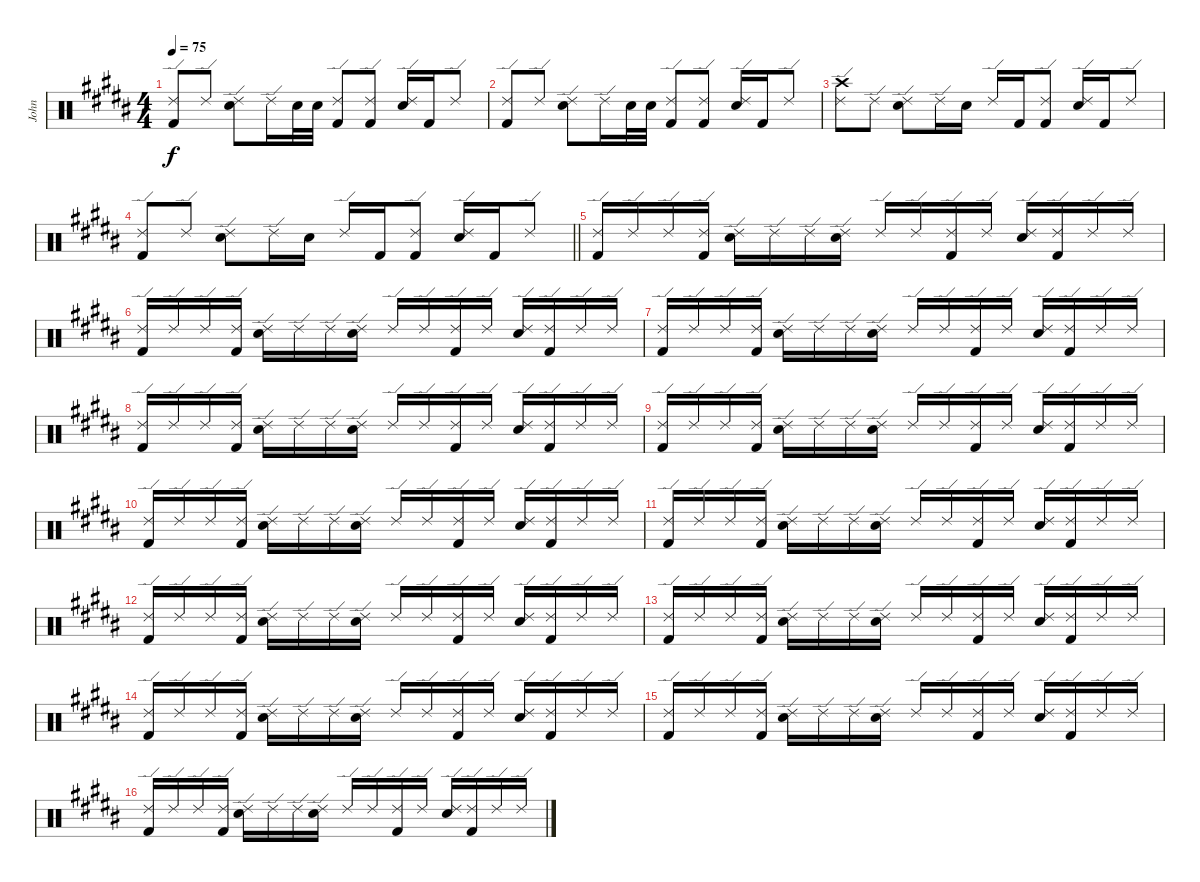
\track ("John" "John") {instrument percussion}
\staff {score}
\articulation defaults
\ts (4 4)
\tempo 75
\clef neutral
\ks g#minor
("Kick (hit) 2" "Ride (edge) 2").8{dy f} "Ride (edge) 2".8 ("Ride (edge) 2" "Snare (hit) 2").8 "Ride (edge) 2".16 "Snare (hit) 2".32 "Snare (hit) 2".32 ("Kick (hit) 2" "Ride (edge) 2").8 ("Kick (hit) 2" "Ride (edge) 2").8 ("Ride (edge) 2" "Snare (hit) 2").16 "Kick (hit) 2".16 "Ride (edge) 2".8 |
("Kick (hit) 2" "Ride (edge) 2").8 "Ride (edge) 2".8 ("Ride (edge) 2" "Snare (hit) 2").8 "Ride (edge) 2".16 "Snare (hit) 2".32 "Snare (hit) 2".32 ("Kick (hit) 2" "Ride (edge) 2").8 ("Kick (hit) 2" "Ride (edge) 2").8 ("Ride (edge) 2" "Snare (hit) 2").16 "Kick (hit) 2".16 "Ride (edge) 2".8 |
("Ride (edge) 2" "Crash high (hit)").8 "Ride (edge) 2".8 ("Ride (edge) 2" "Snare (hit) 2").8 "Ride (edge) 2".16 "Snare (hit) 2".16 "Ride (edge) 2".16 "Kick (hit) 2".16 ("Kick (hit) 2" "Ride (edge) 2").8 ("Ride (edge) 2" "Snare (hit) 2").16 "Kick (hit) 2".16 "Ride (edge) 2".8 |
\barLineRight lightlight
("Kick (hit) 2" "Ride (edge) 2").8 "Ride (edge) 2".8 ("Ride (edge) 2" "Snare (hit) 2").8 "Ride (edge) 2".16 "Snare (hit) 2".16 "Ride (edge) 2".16 "Kick (hit) 2".16 ("Kick (hit) 2" "Ride (edge) 2").8 ("Ride (edge) 2" "Snare (hit) 2").16 "Kick (hit) 2".16 "Ride (edge) 2".8 |
("Kick (hit) 2" "Ride (edge) 2").16 "Ride (edge) 2".16 "Ride (edge) 2".16 ("Kick (hit) 2" "Ride (edge) 2").16 ("Ride (edge) 2" "Snare (hit) 2").16 "Ride (edge) 2".16 "Ride (edge) 2".16 ("Ride (edge) 2" "Snare (hit) 2").16 "Ride (edge) 2".16 "Ride (edge) 2".16 ("Kick (hit) 2" "Ride (edge) 2").16 "Ride (edge) 2".16 ("Ride (edge) 2" "Snare (hit) 2").16 ("Kick (hit) 2" "Ride (edge) 2").16 "Ride (edge) 2".16 "Ride (edge) 2".16 |
("Kick (hit) 2" "Ride (edge) 2").16 "Ride (edge) 2".16 "Ride (edge) 2".16 ("Kick (hit) 2" "Ride (edge) 2").16 ("Ride (edge) 2" "Snare (hit) 2").16 "Ride (edge) 2".16 "Ride (edge) 2".16 ("Ride (edge) 2" "Snare (hit) 2").16 "Ride (edge) 2".16 "Ride (edge) 2".16 ("Kick (hit) 2" "Ride (edge) 2").16 "Ride (edge) 2".16 ("Ride (edge) 2" "Snare (hit) 2").16 ("Kick (hit) 2" "Ride (edge) 2").16 "Ride (edge) 2".16 "Ride (edge) 2".16 |
("Kick (hit) 2" "Ride (edge) 2").16 "Ride (edge) 2".16 "Ride (edge) 2".16 ("Kick (hit) 2" "Ride (edge) 2").16 ("Ride (edge) 2" "Snare (hit) 2").16 "Ride (edge) 2".16 "Ride (edge) 2".16 ("Ride (edge) 2" "Snare (hit) 2").16 "Ride (edge) 2".16 "Ride (edge) 2".16 ("Kick (hit) 2" "Ride (edge) 2").16 "Ride (edge) 2".16 ("Ride (edge) 2" "Snare (hit) 2").16 ("Kick (hit) 2" "Ride (edge) 2").16 "Ride (edge) 2".16 "Ride (edge) 2".16 |
("Kick (hit) 2" "Ride (edge) 2").16 "Ride (edge) 2".16 "Ride (edge) 2".16 ("Kick (hit) 2" "Ride (edge) 2").16 ("Ride (edge) 2" "Snare (hit) 2").16 "Ride (edge) 2".16 "Ride (edge) 2".16 ("Ride (edge) 2" "Snare (hit) 2").16 "Ride (edge) 2".16 "Ride (edge) 2".16 ("Kick (hit) 2" "Ride (edge) 2").16 "Ride (edge) 2".16 ("Ride (edge) 2" "Snare (hit) 2").16 ("Kick (hit) 2" "Ride (edge) 2").16 "Ride (edge) 2".16 "Ride (edge) 2".16 |
("Kick (hit) 2" "Ride (edge) 2").16 "Ride (edge) 2".16 "Ride (edge) 2".16 ("Kick (hit) 2" "Ride (edge) 2").16 ("Ride (edge) 2" "Snare (hit) 2").16 "Ride (edge) 2".16 "Ride (edge) 2".16 ("Ride (edge) 2" "Snare (hit) 2").16 "Ride (edge) 2".16 "Ride (edge) 2".16 ("Kick (hit) 2" "Ride (edge) 2").16 "Ride (edge) 2".16 ("Ride (edge) 2" "Snare (hit) 2").16 ("Kick (hit) 2" "Ride (edge) 2").16 "Ride (edge) 2".16 "Ride (edge) 2".16 |
("Kick (hit) 2" "Ride (edge) 2").16 "Ride (edge) 2".16 "Ride (edge) 2".16 ("Kick (hit) 2" "Ride (edge) 2").16 ("Ride (edge) 2" "Snare (hit) 2").16 "Ride (edge) 2".16 "Ride (edge) 2".16 ("Ride (edge) 2" "Snare (hit) 2").16 "Ride (edge) 2".16 "Ride (edge) 2".16 ("Kick (hit) 2" "Ride (edge) 2").16 "Ride (edge) 2".16 ("Ride (edge) 2" "Snare (hit) 2").16 ("Kick (hit) 2" "Ride (edge) 2").16 "Ride (edge) 2".16 "Ride (edge) 2".16 |
("Kick (hit) 2" "Ride (edge) 2").16 "Ride (edge) 2".16 "Ride (edge) 2".16 ("Kick (hit) 2" "Ride (edge) 2").16 ("Ride (edge) 2" "Snare (hit) 2").16 "Ride (edge) 2".16 "Ride (edge) 2".16 ("Ride (edge) 2" "Snare (hit) 2").16 "Ride (edge) 2".16 "Ride (edge) 2".16 ("Kick (hit) 2" "Ride (edge) 2").16 "Ride (edge) 2".16 ("Ride (edge) 2" "Snare (hit) 2").16 ("Kick (hit) 2" "Ride (edge) 2").16 "Ride (edge) 2".16 "Ride (edge) 2".16 |
("Kick (hit) 2" "Ride (edge) 2").16 "Ride (edge) 2".16 "Ride (edge) 2".16 ("Kick (hit) 2" "Ride (edge) 2").16 ("Ride (edge) 2" "Snare (hit) 2").16 "Ride (edge) 2".16 "Ride (edge) 2".16 ("Ride (edge) 2" "Snare (hit) 2").16 "Ride (edge) 2".16 "Ride (edge) 2".16 ("Kick (hit) 2" "Ride (edge) 2").16 "Ride (edge) 2".16 ("Ride (edge) 2" "Snare (hit) 2").16 ("Kick (hit) 2" "Ride (edge) 2").16 "Ride (edge) 2".16 "Ride (edge) 2".16 |
("Kick (hit) 2" "Ride (edge) 2").16 "Ride (edge) 2".16 "Ride (edge) 2".16 ("Kick (hit) 2" "Ride (edge) 2").16 ("Ride (edge) 2" "Snare (hit) 2").16 "Ride (edge) 2".16 "Ride (edge) 2".16 ("Ride (edge) 2" "Snare (hit) 2").16 "Ride (edge) 2".16 "Ride (edge) 2".16 ("Kick (hit) 2" "Ride (edge) 2").16 "Ride (edge) 2".16 ("Ride (edge) 2" "Snare (hit) 2").16 ("Kick (hit) 2" "Ride (edge) 2").16 "Ride (edge) 2".16 "Ride (edge) 2".16 |
("Kick (hit) 2" "Ride (edge) 2").16 "Ride (edge) 2".16 "Ride (edge) 2".16 ("Kick (hit) 2" "Ride (edge) 2").16 ("Ride (edge) 2" "Snare (hit) 2").16 "Ride (edge) 2".16 "Ride (edge) 2".16 ("Ride (edge) 2" "Snare (hit) 2").16 "Ride (edge) 2".16 "Ride (edge) 2".16 ("Kick (hit) 2" "Ride (edge) 2").16 "Ride (edge) 2".16 ("Ride (edge) 2" "Snare (hit) 2").16 ("Kick (hit) 2" "Ride (edge) 2").16 "Ride (edge) 2".16 "Ride (edge) 2".16 |
("Kick (hit) 2" "Ride (edge) 2").16 "Ride (edge) 2".16 "Ride (edge) 2".16 ("Kick (hit) 2" "Ride (edge) 2").16 ("Ride (edge) 2" "Snare (hit) 2").16 "Ride (edge) 2".16 "Ride (edge) 2".16 ("Ride (edge) 2" "Snare (hit) 2").16 "Ride (edge) 2".16 "Ride (edge) 2".16 ("Kick (hit) 2" "Ride (edge) 2").16 "Ride (edge) 2".16 ("Ride (edge) 2" "Snare (hit) 2").16 ("Kick (hit) 2" "Ride (edge) 2").16 "Ride (edge) 2".16 "Ride (edge) 2".16 |
("Kick (hit) 2" "Ride (edge) 2").16 "Ride (edge) 2".16 "Ride (edge) 2".16 ("Kick (hit) 2" "Ride (edge) 2").16 ("Ride (edge) 2" "Snare (hit) 2").16 "Ride (edge) 2".16 "Ride (edge) 2".16 ("Ride (edge) 2" "Snare (hit) 2").16 "Ride (edge) 2".16 "Ride (edge) 2".16 ("Kick (hit) 2" "Ride (edge) 2").16 "Ride (edge) 2".16 ("Ride (edge) 2" "Snare (hit) 2").16 ("Kick (hit) 2" "Ride (edge) 2").16 "Ride (edge) 2".16 "Ride (edge) 2".16
